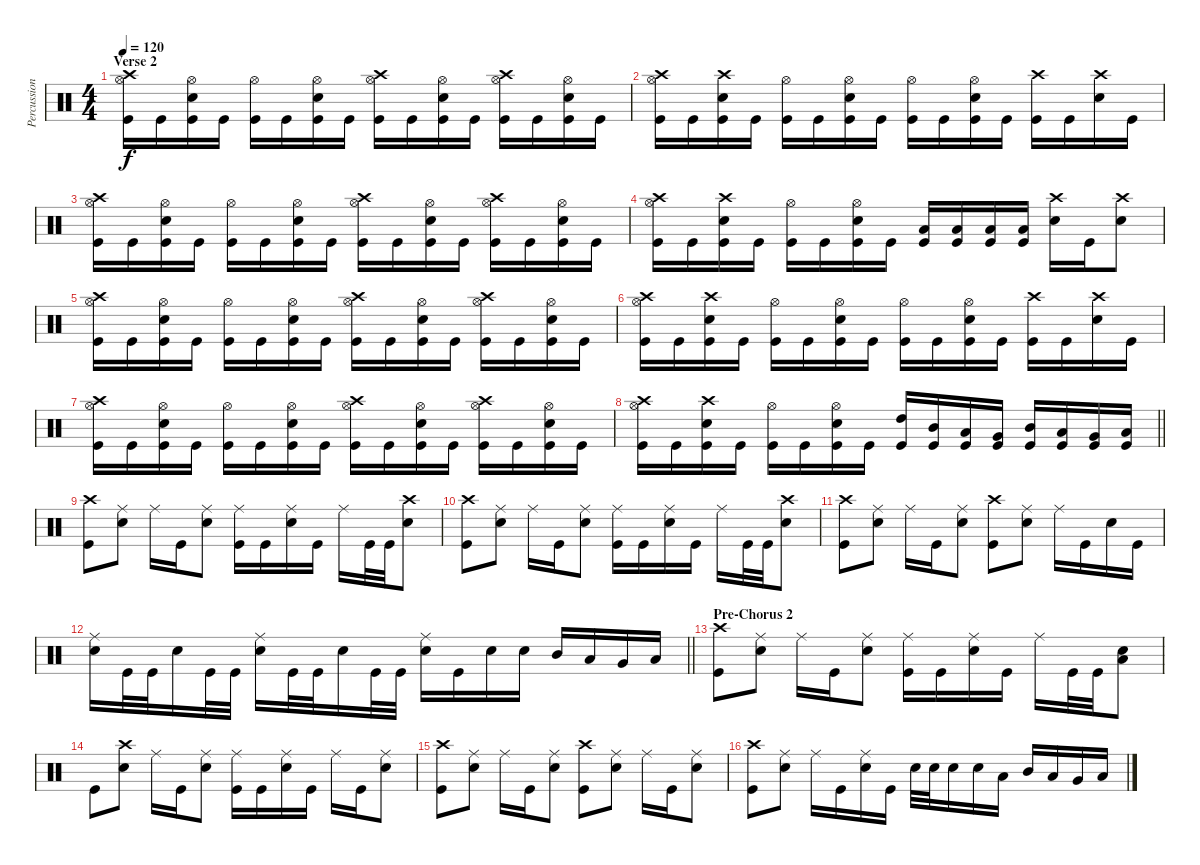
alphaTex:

\track ("Percussion" "Percussion") {instrument percussion}
\staff {score}
\articulation defaults
\ts (4 4)
\section ("" "Verse 2")
\tempo 120
\clef neutral
\ks c
("Crash high (hit)" "Hi-Hat (open)" "Kick (hit)").16{dy f} "Kick (hit)".16 ("Hi-Hat (open)" "Snare (hit) 2" "Kick (hit)").16 "Kick (hit)".16 ("Hi-Hat (open)" "Kick (hit)").16 "Kick (hit)".16 ("Hi-Hat (open)" "Snare (hit) 2" "Kick (hit)").16 "Kick (hit)".16 ("Crash high (hit)" "Hi-Hat (open)" "Kick (hit)").16 "Kick (hit)".16 ("Hi-Hat (open)" "Snare (hit) 2" "Kick (hit)").16 "Kick (hit)".16 ("Crash high (hit)" "Hi-Hat (open)" "Kick (hit)").16 "Kick (hit)".16 ("Hi-Hat (open)" "Snare (hit) 2" "Kick (hit)").16 "Kick (hit)".16 |
("Crash high (hit)" "Hi-Hat (open)" "Kick (hit)").16 "Kick (hit)".16 ("Crash high (hit)" "Snare (hit) 2" "Kick (hit)").16 "Kick (hit)".16 ("Hi-Hat (open)" "Kick (hit)").16 "Kick (hit)".16 ("Hi-Hat (open)" "Snare (hit) 2" "Kick (hit)").16 "Kick (hit)".16 ("Hi-Hat (open)" "Kick (hit)").16 "Kick (hit)".16 ("Hi-Hat (open)" "Snare (hit) 2" "Kick (hit)").16 "Kick (hit)".16 ("Crash high (hit)" "Kick (hit)").16 "Kick (hit)".16 ("Crash high (hit)" "Snare (hit) 2").16 "Kick (hit)".16 |
("Crash high (hit)" "Hi-Hat (open)" "Kick (hit)").16 "Kick (hit)".16 ("Hi-Hat (open)" "Snare (hit) 2" "Kick (hit)").16 "Kick (hit)".16 ("Hi-Hat (open)" "Kick (hit)").16 "Kick (hit)".16 ("Hi-Hat (open)" "Snare (hit) 2" "Kick (hit)").16 "Kick (hit)".16 ("Crash high (hit)" "Hi-Hat (open)" "Kick (hit)").16 "Kick (hit)".16 ("Hi-Hat (open)" "Snare (hit) 2" "Kick (hit)").16 "Kick (hit)".16 ("Crash high (hit)" "Hi-Hat (open)" "Kick (hit)").16 "Kick (hit)".16 ("Hi-Hat (open)" "Snare (hit) 2" "Kick (hit)").16 "Kick (hit)".16 |
("Crash high (hit)" "Hi-Hat (open)" "Kick (hit)").16 "Kick (hit)".16 ("Crash high (hit)" "Snare (hit) 2" "Kick (hit)").16 "Kick (hit)".16 ("Hi-Hat (open)" "Kick (hit)").16 "Kick (hit)".16 ("Hi-Hat (open)" "Snare (hit) 2" "Kick (hit)").16 "Kick (hit)".16 ("Low Floor Tom (hit)" "Kick (hit)").16 ("Low Floor Tom (hit)" "Kick (hit)").16 ("Low Floor Tom (hit)" "Kick (hit)").16 ("Low Floor Tom (hit)" "Kick (hit)").16 ("Crash high (hit)" "Snare (hit) 2").16 "Kick (hit)".16 ("Crash high (hit)" "Snare (hit) 2").8 |
("Crash high (hit)" "Hi-Hat (open)" "Kick (hit)").16 "Kick (hit)".16 ("Hi-Hat (open)" "Snare (hit) 2" "Kick (hit)").16 "Kick (hit)".16 ("Hi-Hat (open)" "Kick (hit)").16 "Kick (hit)".16 ("Hi-Hat (open)" "Snare (hit) 2" "Kick (hit)").16 "Kick (hit)".16 ("Crash high (hit)" "Hi-Hat (open)" "Kick (hit)").16 "Kick (hit)".16 ("Hi-Hat (open)" "Snare (hit) 2" "Kick (hit)").16 "Kick (hit)".16 ("Crash high (hit)" "Hi-Hat (open)" "Kick (hit)").16 "Kick (hit)".16 ("Hi-Hat (open)" "Snare (hit) 2" "Kick (hit)").16 "Kick (hit)".16 |
("Crash high (hit)" "Hi-Hat (open)" "Kick (hit)").16 "Kick (hit)".16 ("Crash high (hit)" "Snare (hit) 2" "Kick (hit)").16 "Kick (hit)".16 ("Hi-Hat (open)" "Kick (hit)").16 "Kick (hit)".16 ("Hi-Hat (open)" "Snare (hit) 2" "Kick (hit)").16 "Kick (hit)".16 ("Hi-Hat (open)" "Kick (hit)").16 "Kick (hit)".16 ("Hi-Hat (open)" "Snare (hit) 2" "Kick (hit)").16 "Kick (hit)".16 ("Crash high (hit)" "Kick (hit)").16 "Kick (hit)".16 ("Crash high (hit)" "Snare (hit) 2").16 "Kick (hit)".16 |
("Crash high (hit)" "Hi-Hat (open)" "Kick (hit)").16 "Kick (hit)".16 ("Hi-Hat (open)" "Snare (hit) 2" "Kick (hit)").16 "Kick (hit)".16 ("Hi-Hat (open)" "Kick (hit)").16 "Kick (hit)".16 ("Hi-Hat (open)" "Snare (hit) 2" "Kick (hit)").16 "Kick (hit)".16 ("Crash high (hit)" "Hi-Hat (open)" "Kick (hit)").16 "Kick (hit)".16 ("Hi-Hat (open)" "Snare (hit) 2" "Kick (hit)").16 "Kick (hit)".16 ("Crash high (hit)" "Hi-Hat (open)" "Kick (hit)").16 "Kick (hit)".16 ("Hi-Hat (open)" "Snare (hit) 2" "Kick (hit)").16 "Kick (hit)".16 |
\barLineRight lightlight
("Crash high (hit)" "Hi-Hat (open)" "Kick (hit)").16 "Kick (hit)".16 ("Crash high (hit)" "Snare (hit) 2" "Kick (hit)").16 "Kick (hit)".16 ("Hi-Hat (open)" "Kick (hit)").16 "Kick (hit)".16 ("Hi-Hat (open)" "Snare (hit) 2" "Kick (hit)").16 "Kick (hit)".16 ("High Tom (hit)" "Kick (hit)").16 ("Mid Tom (hit)" "Kick (hit)").16 ("Low Tom (hit)" "Kick (hit)").16 ("Very Low Tom (hit)" "Kick (hit)").16 ("Mid Tom (hit)" "Kick (hit)").16 ("Low Tom (hit)" "Kick (hit)").16 ("Very Low Tom (hit)" "Kick (hit)").16 ("Low Floor Tom (hit)" "Kick (hit)").16 |
("Crash high (hit)" "Kick (hit)").8 ("Ride (middle)" "Snare (hit) 2").8 "Ride (middle)".16 "Kick (hit)".16 ("Ride (middle)" "Snare (hit) 2").8 ("Ride (middle)" "Kick (hit)").16 "Kick (hit)".16 ("Ride (middle)" "Snare (hit) 2").16 "Kick (hit)".16 "Ride (middle)".16 "Kick (hit)".32 "Kick (hit)".32 ("Crash high (hit)" "Snare (hit) 2").8 |
("Crash high (hit)" "Kick (hit)").8 ("Ride (middle)" "Snare (hit) 2").8 "Ride (middle)".16 "Kick (hit)".16 ("Ride (middle)" "Snare (hit) 2").8 ("Ride (middle)" "Kick (hit)").16 "Kick (hit)".16 ("Ride (middle)" "Snare (hit) 2").16 "Kick (hit)".16 "Ride (middle)".16 "Kick (hit)".32 "Kick (hit)".32 ("Crash high (hit)" "Snare (hit) 2").8 |
("Crash high (hit)" "Kick (hit)").8 ("Ride (middle)" "Snare (hit) 2").8 "Ride (middle)".16 "Kick (hit)".16 ("Ride (middle)" "Snare (hit) 2").8 ("Crash high (hit)" "Kick (hit)").8 ("Ride (middle)" "Snare (hit) 2").8 "Ride (middle)".16 "Kick (hit)".16 "Snare (hit) 2".16 "Kick (hit)".16 |
\barLineRight lightlight
("Ride (middle)" "Snare (hit) 2").16 "Kick (hit)".32 "Kick (hit)".32 "Snare (hit) 2".16 "Kick (hit)".32 "Kick (hit)".32 ("Ride (middle)" "Snare (hit) 2").16 "Kick (hit)".32 "Kick (hit)".32 "Snare (hit) 2".16 "Kick (hit)".32 "Kick (hit)".32 ("Ride (middle)" "Snare (hit) 2").16 "Kick (hit)".16 "Snare (hit) 2".16 "Snare (hit) 2".16 "Mid Tom (hit)".16 "Low Tom (hit)".16 "Very Low Tom (hit)".16 "Low Floor Tom (hit)".16 |
\section ("" "Pre-Chorus 2")
("Crash high (hit)" "Kick (hit)").8 ("Ride (middle)" "Snare (hit) 2").8 "Ride (middle)".16 "Kick (hit)".16 ("Ride (middle)" "Snare (hit) 2").8 ("Ride (middle)" "Kick (hit)").16 "Kick (hit)".16 ("Ride (middle)" "Snare (hit) 2").16 "Kick (hit)".16 "Ride (middle)".16 "Kick (hit)".32 "Kick (hit)".32 ("Snare (hit) 2" "Low Floor Tom (hit)").8 |
"Kick (hit)".8 ("Crash high (hit)" "Snare (hit) 2").8 "Ride (middle)".16 "Kick (hit)".16 ("Ride (middle)" "Snare (hit) 2").8 ("Ride (middle)" "Kick (hit)").16 "Kick (hit)".16 ("Ride (middle)" "Snare (hit) 2").16 "Kick (hit)".16 "Ride (middle)".16 "Kick (hit)".16 ("Ride (middle)" "Snare (hit) 2").8 |
("Crash high (hit)" "Kick (hit)").8 ("Ride (middle)" "Snare (hit) 2").8 "Ride (middle)".16 "Kick (hit)".16 ("Ride (middle)" "Snare (hit) 2").8 ("Crash high (hit)" "Kick (hit)").8 ("Ride (middle)" "Snare (hit) 2").8 "Ride (middle)".16 "Kick (hit)".16 ("Ride (middle)" "Snare (hit) 2").8 |
("Crash high (hit)" "Kick (hit)").8 ("Ride (middle)" "Snare (hit) 2").8 "Ride (middle)".16 "Kick (hit)".16 ("Ride (middle)" "Snare (hit) 2").16 "Kick (hit)".16 "Snare (hit) 2".32 "Snare (hit) 2".32 "Snare (hit) 2".16 "Snare (hit) 2".16 "Low Tom (hit)".16 "Mid Tom (hit)".16 "Low Tom (hit)".16 "Very Low Tom (hit)".16 "Low Floor Tom (hit)".16
